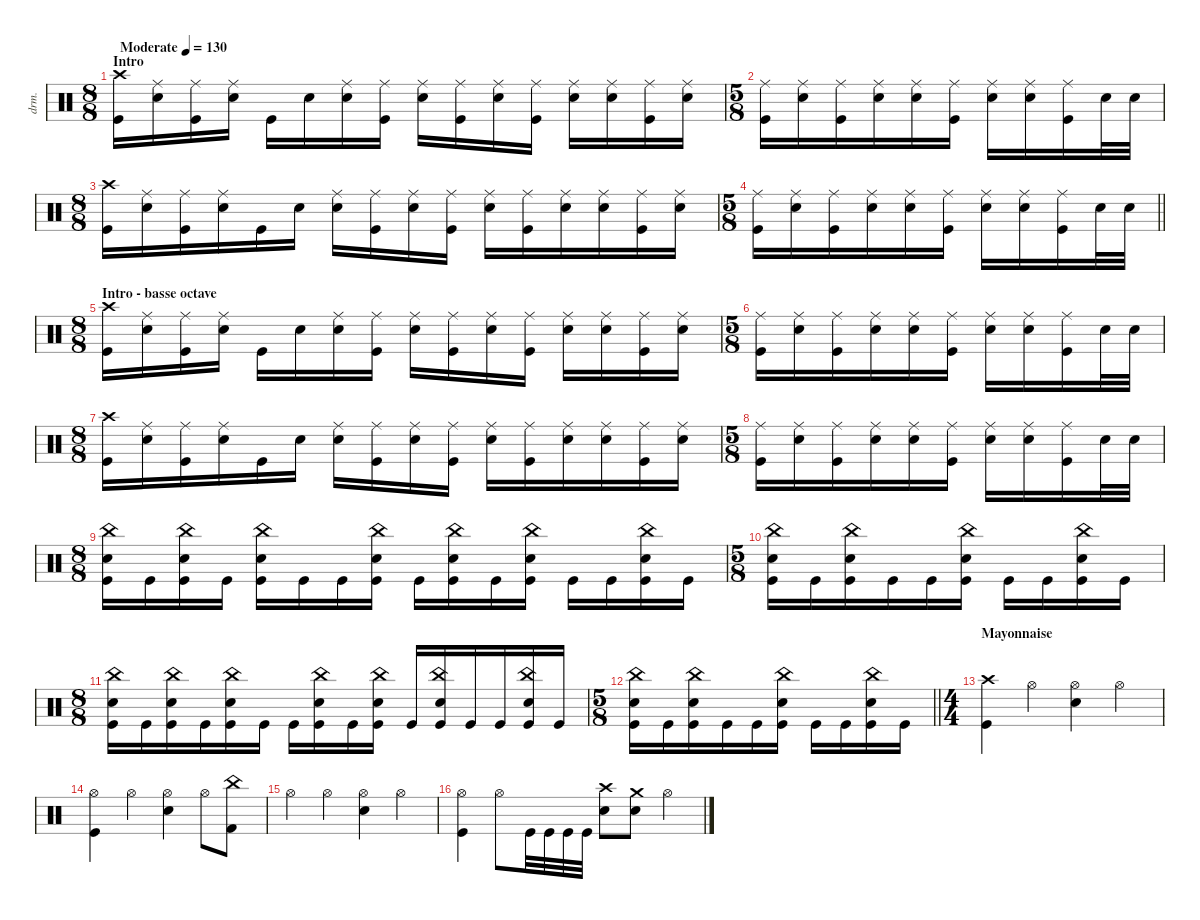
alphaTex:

\defaultSystemsLayout 4
\hideDynamics
\bracketExtendMode nobrackets
\track ("Manouche" "drm.") {solo instrument percussion}
\staff {score}
\articulation defaults
\ts (8 8)
\beaming (8 2 2 2 2)
\section ("" "Intro")
\tempo (130 "Moderate")
\clef neutral
\ks c
("Crash high (hit)" "Kick (hit)").16{dy f beam Down} ("Snare (hit) 2" "Ride (middle)").16{beam Down} ("Kick (hit)" "Ride (middle)").16{beam Down} ("Snare (hit) 2" "Ride (middle)").16{beam Down} "Kick (hit)".16{beam Down} "Snare (hit) 2".16{beam Down} ("Snare (hit) 2" "Ride (middle)").16{beam Down} ("Kick (hit)" "Ride (middle)").16{beam Down} ("Snare (hit) 2" "Ride (middle)").16{beam Down} ("Kick (hit)" "Ride (middle)").16{beam Down} ("Snare (hit) 2" "Ride (middle)").16{beam Down} ("Ride (middle)" "Kick (hit)").16{beam Down} ("Snare (hit) 2" "Ride (middle)").16{beam Down} ("Snare (hit) 2" "Ride (middle)").16{beam Down} ("Kick (hit)" "Ride (middle)").16{beam Down} ("Snare (hit) 2" "Ride (middle)").16{beam Down} |
\ts (5 8)
\beaming (8 3 2)
("Kick (hit)" "Ride (middle)").16{beam Down} ("Snare (hit) 2" "Ride (middle)").16{beam Down} ("Kick (hit)" "Ride (middle)").16{beam Down} ("Snare (hit) 2" "Ride (middle)").16{beam Down} ("Snare (hit) 2" "Ride (middle)").16{beam Down} ("Kick (hit)" "Ride (middle)").16{beam Down} ("Snare (hit) 2" "Ride (middle)").16{beam Down} ("Snare (hit) 2" "Ride (middle)").16{beam Down} ("Kick (hit)" "Ride (middle)").16{beam Down} "Snare (hit) 2".32{beam Down} "Snare (hit) 2".32{beam Down} |
\ts (8 8)
\beaming (8 3 2 3)
("Crash high (hit)" "Kick (hit)").16{beam Down} ("Snare (hit) 2" "Ride (middle)").16{beam Down} ("Kick (hit)" "Ride (middle)").16{beam Down} ("Snare (hit) 2" "Ride (middle)").16{beam Down} "Kick (hit)".16{beam Down} "Snare (hit) 2".16{beam Down} ("Snare (hit) 2" "Ride (middle)").16{beam Down} ("Kick (hit)" "Ride (middle)").16{beam Down} ("Snare (hit) 2" "Ride (middle)").16{beam Down} ("Kick (hit)" "Ride (middle)").16{beam Down} ("Snare (hit) 2" "Ride (middle)").16{beam Down} ("Ride (middle)" "Kick (hit)").16{beam Down} ("Snare (hit) 2" "Ride (middle)").16{beam Down} ("Snare (hit) 2" "Ride (middle)").16{beam Down} ("Kick (hit)" "Ride (middle)").16{beam Down} ("Snare (hit) 2" "Ride (middle)").16{beam Down} |
\ts (5 8)
\beaming (8 3 2)
\barLineRight lightlight
("Kick (hit)" "Ride (middle)").16{beam Down} ("Snare (hit) 2" "Ride (middle)").16{beam Down} ("Kick (hit)" "Ride (middle)").16{beam Down} ("Snare (hit) 2" "Ride (middle)").16{beam Down} ("Snare (hit) 2" "Ride (middle)").16{beam Down} ("Kick (hit)" "Ride (middle)").16{beam Down} ("Snare (hit) 2" "Ride (middle)").16{beam Down} ("Snare (hit) 2" "Ride (middle)").16{beam Down} ("Kick (hit)" "Ride (middle)").16{beam Down} "Snare (hit) 2".32{beam Down} "Snare (hit) 2".32{beam Down} |
\ts (8 8)
\beaming (8 2 2 2 2)
\section ("" "Intro - basse octave")
("Crash high (hit)" "Kick (hit)").16{beam Down} ("Snare (hit) 2" "Ride (middle)").16{beam Down} ("Kick (hit)" "Ride (middle)").16{beam Down} ("Snare (hit) 2" "Ride (middle)").16{beam Down} "Kick (hit)".16{beam Down} "Snare (hit) 2".16{beam Down} ("Snare (hit) 2" "Ride (middle)").16{beam Down} ("Kick (hit)" "Ride (middle)").16{beam Down} ("Snare (hit) 2" "Ride (middle)").16{beam Down} ("Kick (hit)" "Ride (middle)").16{beam Down} ("Snare (hit) 2" "Ride (middle)").16{beam Down} ("Ride (middle)" "Kick (hit)").16{beam Down} ("Snare (hit) 2" "Ride (middle)").16{beam Down} ("Snare (hit) 2" "Ride (middle)").16{beam Down} ("Kick (hit)" "Ride (middle)").16{beam Down} ("Snare (hit) 2" "Ride (middle)").16{beam Down} |
\ts (5 8)
\beaming (8 3 2)
("Kick (hit)" "Ride (middle)").16{beam Down} ("Snare (hit) 2" "Ride (middle)").16{beam Down} ("Kick (hit)" "Ride (middle)").16{beam Down} ("Snare (hit) 2" "Ride (middle)").16{beam Down} ("Snare (hit) 2" "Ride (middle)").16{beam Down} ("Kick (hit)" "Ride (middle)").16{beam Down} ("Snare (hit) 2" "Ride (middle)").16{beam Down} ("Snare (hit) 2" "Ride (middle)").16{beam Down} ("Kick (hit)" "Ride (middle)").16{beam Down} "Snare (hit) 2".32{beam Down} "Snare (hit) 2".32{beam Down} |
\ts (8 8)
\beaming (8 3 2 3)
("Crash high (hit)" "Kick (hit)").16{beam Down} ("Snare (hit) 2" "Ride (middle)").16{beam Down} ("Kick (hit)" "Ride (middle)").16{beam Down} ("Snare (hit) 2" "Ride (middle)").16{beam Down} "Kick (hit)".16{beam Down} "Snare (hit) 2".16{beam Down} ("Snare (hit) 2" "Ride (middle)").16{beam Down} ("Kick (hit)" "Ride (middle)").16{beam Down} ("Snare (hit) 2" "Ride (middle)").16{beam Down} ("Kick (hit)" "Ride (middle)").16{beam Down} ("Snare (hit) 2" "Ride (middle)").16{beam Down} ("Ride (middle)" "Kick (hit)").16{beam Down} ("Snare (hit) 2" "Ride (middle)").16{beam Down} ("Snare (hit) 2" "Ride (middle)").16{beam Down} ("Kick (hit)" "Ride (middle)").16{beam Down} ("Snare (hit) 2" "Ride (middle)").16{beam Down} |
\ts (5 8)
\beaming (8 3 2)
("Kick (hit)" "Ride (middle)").16{beam Down} ("Snare (hit) 2" "Ride (middle)").16{beam Down} ("Kick (hit)" "Ride (middle)").16{beam Down} ("Snare (hit) 2" "Ride (middle)").16{beam Down} ("Snare (hit) 2" "Ride (middle)").16{beam Down} ("Kick (hit)" "Ride (middle)").16{beam Down} ("Snare (hit) 2" "Ride (middle)").16{beam Down} ("Snare (hit) 2" "Ride (middle)").16{beam Down} ("Kick (hit)" "Ride (middle)").16{beam Down} "Snare (hit) 2".32{beam Down} "Snare (hit) 2".32{beam Down} |
\ts (8 8)
\beaming (8 2 2 2 2)
("Snare (hit) 2" "China (hit)" "Kick (hit)").16{beam Down} "Kick (hit)".16{beam Down} ("Kick (hit)" "Snare (hit) 2" "China (hit)").16{beam Down} "Kick (hit)".16{beam Down} ("Kick (hit)" "Snare (hit) 2" "China (hit)").16{beam Down} "Kick (hit)".16{beam Down} "Kick (hit)".16{beam Down} ("Kick (hit)" "Snare (hit) 2" "China (hit)").16{beam Down} "Kick (hit)".16{beam Down} ("Kick (hit)" "Snare (hit) 2" "China (hit)").16{beam Down} "Kick (hit)".16{beam Down} ("Kick (hit)" "Snare (hit) 2" "China (hit)").16{beam Down} "Kick (hit)".16{beam Down} "Kick (hit)".16{beam Down} ("Kick (hit)" "Snare (hit) 2" "China (hit)").16{beam Down} "Kick (hit)".16{beam Down} |
\ts (5 8)
\beaming (8 3 2)
("Kick (hit)" "Snare (hit) 2" "China (hit)").16{beam Down} "Kick (hit)".16{beam Down} ("Kick (hit)" "Snare (hit) 2" "China (hit)").16{beam Down} "Kick (hit)".16{beam Down} "Kick (hit)".16{beam Down} ("Kick (hit)" "Snare (hit) 2" "China (hit)").16{beam Down} "Kick (hit)".16{beam Down} "Kick (hit)".16{beam Down} ("Kick (hit)" "Snare (hit) 2" "China (hit)").16{beam Down} "Kick (hit)".16{beam Down} |
\ts (8 8)
\beaming (8 3 2 3)
("Snare (hit) 2" "China (hit)" "Kick (hit)").16{beam Down} "Kick (hit)".16{beam Down} ("Kick (hit)" "Snare (hit) 2" "China (hit)").16{beam Down} "Kick (hit)".16{beam Down} ("Kick (hit)" "Snare (hit) 2" "China (hit)").16{beam Down} "Kick (hit)".16{beam Down} "Kick (hit)".16{beam Down} ("Kick (hit)" "Snare (hit) 2" "China (hit)").16{beam Down} "Kick (hit)".16{beam Down} ("Kick (hit)" "Snare (hit) 2" "China (hit)").16{beam Down} "Kick (hit)".16{beam Up} ("Kick (hit)" "Snare (hit) 2" "China (hit)").16{beam Up} "Kick (hit)".16{beam Up} "Kick (hit)".16{beam Up} ("Kick (hit)" "Snare (hit) 2" "China (hit)").16{beam Up} "Kick (hit)".16{beam Up} |
\ts (5 8)
\beaming (8 3 2)
\barLineRight lightlight
("Kick (hit)" "Snare (hit) 2" "China (hit)").16{beam Down} "Kick (hit)".16{beam Down} ("Kick (hit)" "Snare (hit) 2" "China (hit)").16{beam Down} "Kick (hit)".16{beam Down} "Kick (hit)".16{beam Down} ("Kick (hit)" "Snare (hit) 2" "China (hit)").16{beam Down} "Kick (hit)".16{beam Down} "Kick (hit)".16{beam Down} ("Kick (hit)" "Snare (hit) 2" "China (hit)").16{beam Down} "Kick (hit)".16{beam Down} |
\ts (4 4)
\beaming (8 2 2 2 2)
\section ("" "Mayonnaise")
("Crash high (hit)" "Kick (hit)").4{beam Down} "Hi-Hat (open)".4{beam Down} ("Hi-Hat (open)" "Snare (hit) 2").4{beam Down} "Hi-Hat (open)".4{beam Down} |
("Hi-Hat (open)" "Kick (hit)").4{beam Down} "Hi-Hat (open)".4{beam Down} ("Hi-Hat (open)" "Snare (hit) 2").4{beam Down} "Hi-Hat (open)".8{beam Down} ("China (hit)" "Kick (hit) 2").8{beam Down} |
"Hi-Hat (open)".4{beam Down} "Hi-Hat (open)".4{beam Down} ("Hi-Hat (open)" "Snare (hit) 2").4{beam Down} "Hi-Hat (open)".4{beam Down} |
("Hi-Hat (open)" "Kick (hit)").4{beam Down} "Hi-Hat (open)".8{beam Down} "Kick (hit)".32{beam Down} "Kick (hit)".32{beam Down} "Kick (hit)".32{beam Down} "Kick (hit)".32{beam Down} ("Snare (hit) 2" "Crash high (hit)").8{beam Down} ("Crash medium (hit)" "Snare (hit) 2").8{beam Down} "Hi-Hat (open)".4{beam Down}
